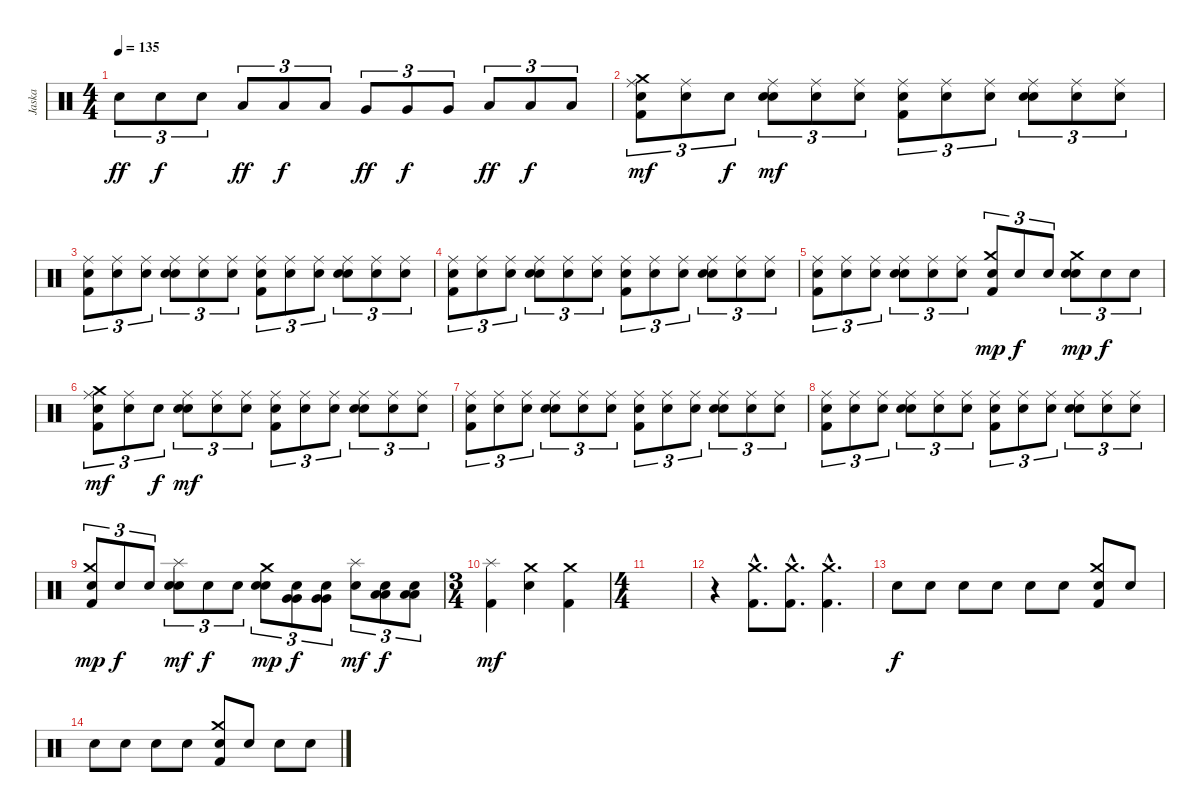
\track ("Jaska" "Jaska") {instrument percussion}
\staff {score}
\articulation defaults
\ts (4 4)
\tempo 135
\clef neutral
\ks c "Electric Snare (hit)".8{tu (3 2) dy ff} "Electric Snare (hit)".8{tu (3 2) dy f} "Electric Snare (hit)".8{tu (3 2)} "Low Tom (hit)".8{tu (3 2) dy ff} "Low Tom (hit)".8{tu (3 2) dy f} "Low Tom (hit)".8{tu (3 2)} "Very Low Tom (hit)".8{tu (3 2) dy ff} "Very Low Tom (hit)".8{tu (3 2) dy f} "Very Low Tom (hit)".8{tu (3 2)} "Low Floor Tom (hit)".8{tu (3 2) dy ff} "Low Floor Tom (hit)".8{tu (3 2) dy f} "Low Floor Tom (hit)".8{tu (3 2)}
|
("Snare (hit)"{x} "Crash medium (hit)" "Ride (middle)" "Kick (hit) 2").8{tu (3 2) dy mf} ("Snare (hit)"{x} "Ride (middle)").8{tu (3 2)} "Snare (hit)"{x}.8{tu (3 2) dy f} ("Snare (hit)"{x} "Ride (middle)" "Electric Snare (hit)").8{tu (3 2) dy mf} ("Snare (hit)"{x} "Ride (middle)").8{tu (3 2)} ("Snare (hit)"{x} "Ride (middle)").8{tu (3 2)} ("Snare (hit)"{x} "Ride (middle)" "Kick (hit) 2").8{tu (3 2)} ("Snare (hit)"{x} "Ride (middle)").8{tu (3 2)} ("Snare (hit)"{x} "Ride (middle)").8{tu (3 2)} ("Snare (hit)"{x} "Ride (middle)" "Electric Snare (hit)").8{tu (3 2)} ("Snare (hit)"{x} "Ride (middle)").8{tu (3 2)} ("Snare (hit)"{x} "Ride (middle)").8{tu (3 2)} |
("Snare (hit)"{x} "Ride (middle)" "Kick (hit) 2").8{tu (3 2)} ("Snare (hit)"{x} "Ride (middle)").8{tu (3 2)} ("Snare (hit)"{x} "Ride (middle)").8{tu (3 2)} ("Snare (hit)"{x} "Ride (middle)" "Electric Snare (hit)").8{tu (3 2)} ("Snare (hit)"{x} "Ride (middle)").8{tu (3 2)} ("Snare (hit)"{x} "Ride (middle)").8{tu (3 2)} ("Snare (hit)"{x} "Ride (middle)" "Kick (hit) 2").8{tu (3 2)} ("Snare (hit)"{x} "Ride (middle)").8{tu (3 2)} ("Snare (hit)"{x} "Ride (middle)").8{tu (3 2)} ("Snare (hit)"{x} "Ride (middle)" "Electric Snare (hit)").8{tu (3 2)} ("Snare (hit)"{x} "Ride (middle)").8{tu (3 2)} ("Snare (hit)"{x} "Ride (middle)").8{tu (3 2)} |
("Snare (hit)"{x} "Ride (middle)" "Kick (hit) 2").8{tu (3 2)} ("Snare (hit)"{x} "Ride (middle)").8{tu (3 2)} ("Snare (hit)"{x} "Ride (middle)").8{tu (3 2)} ("Snare (hit)"{x} "Ride (middle)" "Electric Snare (hit)").8{tu (3 2)} ("Snare (hit)"{x} "Ride (middle)").8{tu (3 2)} ("Snare (hit)"{x} "Ride (middle)").8{tu (3 2)} ("Snare (hit)"{x} "Ride (middle)" "Kick (hit) 2").8{tu (3 2)} ("Snare (hit)"{x} "Ride (middle)").8{tu (3 2)} ("Snare (hit)"{x} "Ride (middle)").8{tu (3 2)} ("Snare (hit)"{x} "Ride (middle)" "Electric Snare (hit)").8{tu (3 2)} ("Snare (hit)"{x} "Ride (middle)").8{tu (3 2)} ("Snare (hit)"{x} "Ride (middle)").8{tu (3 2)} |
("Snare (hit)"{x} "Ride (middle)" "Kick (hit) 2").8{tu (3 2)} ("Snare (hit)"{x} "Ride (middle)").8{tu (3 2)} ("Snare (hit)"{x} "Ride (middle)").8{tu (3 2)} ("Snare (hit)"{x} "Ride (middle)" "Electric Snare (hit)").8{tu (3 2)} ("Snare (hit)"{x} "Ride (middle)").8{tu (3 2)} ("Snare (hit)"{x} "Ride (middle)").8{tu (3 2)} ("Snare (hit)"{x} "Crash medium (hit)" "Kick (hit) 2").8{tu (3 2) dy mp} "Snare (hit)"{x}.8{tu (3 2) dy f} "Snare (hit)"{x}.8{tu (3 2)} ("Snare (hit)"{x} "Crash medium (hit)" "Electric Snare (hit)").8{tu (3 2) dy mp} "Snare (hit)"{x}.8{tu (3 2) dy f} "Snare (hit)"{x}.8{tu (3 2)} |
("Snare (hit)"{x} "Crash medium (hit)" "Ride (middle)" "Kick (hit) 2").8{tu (3 2) dy mf} ("Snare (hit)"{x} "Ride (middle)").8{tu (3 2)} "Snare (hit)"{x}.8{tu (3 2) dy f} ("Snare (hit)"{x} "Ride (middle)" "Electric Snare (hit)").8{tu (3 2) dy mf} ("Snare (hit)"{x} "Ride (middle)").8{tu (3 2)} ("Snare (hit)"{x} "Ride (middle)").8{tu (3 2)} ("Snare (hit)"{x} "Ride (middle)" "Kick (hit) 2").8{tu (3 2)} ("Snare (hit)"{x} "Ride (middle)").8{tu (3 2)} ("Snare (hit)"{x} "Ride (middle)").8{tu (3 2)} ("Snare (hit)"{x} "Ride (middle)" "Electric Snare (hit)").8{tu (3 2)} ("Snare (hit)"{x} "Ride (middle)").8{tu (3 2)} ("Snare (hit)"{x} "Ride (middle)").8{tu (3 2)} |
("Snare (hit)"{x} "Ride (middle)" "Kick (hit) 2").8{tu (3 2)} ("Snare (hit)"{x} "Ride (middle)").8{tu (3 2)} ("Snare (hit)"{x} "Ride (middle)").8{tu (3 2)} ("Snare (hit)"{x} "Ride (middle)" "Electric Snare (hit)").8{tu (3 2)} ("Snare (hit)"{x} "Ride (middle)").8{tu (3 2)} ("Snare (hit)"{x} "Ride (middle)").8{tu (3 2)} ("Snare (hit)"{x} "Ride (middle)" "Kick (hit) 2").8{tu (3 2)} ("Snare (hit)"{x} "Ride (middle)").8{tu (3 2)} ("Snare (hit)"{x} "Ride (middle)").8{tu (3 2)} ("Snare (hit)"{x} "Ride (middle)" "Electric Snare (hit)").8{tu (3 2)} ("Snare (hit)"{x} "Ride (middle)").8{tu (3 2)} ("Snare (hit)"{x} "Ride (middle)").8{tu (3 2)} |
("Snare (hit)"{x} "Ride (middle)" "Kick (hit) 2").8{tu (3 2)} ("Snare (hit)"{x} "Ride (middle)").8{tu (3 2)} ("Snare (hit)"{x} "Ride (middle)").8{tu (3 2)} ("Snare (hit)"{x} "Ride (middle)" "Electric Snare (hit)").8{tu (3 2)} ("Snare (hit)"{x} "Ride (middle)").8{tu (3 2)} ("Snare (hit)"{x} "Ride (middle)").8{tu (3 2)} ("Snare (hit)"{x} "Ride (middle)" "Kick (hit) 2").8{tu (3 2)} ("Snare (hit)"{x} "Ride (middle)").8{tu (3 2)} ("Snare (hit)"{x} "Ride (middle)").8{tu (3 2)} ("Snare (hit)"{x} "Ride (middle)" "Electric Snare (hit)").8{tu (3 2)} ("Snare (hit)"{x} "Ride (middle)").8{tu (3 2)} ("Snare (hit)"{x} "Ride (middle)").8{tu (3 2)} |
("Snare (hit)"{x} "Crash medium (hit)" "Kick (hit) 2").8{tu (3 2) dy mp} "Snare (hit)"{x}.8{tu (3 2) dy f} "Snare (hit)"{x}.8{tu (3 2)} ("Snare (hit)"{x} "Splash (hit)" "Electric Snare (hit)").8{tu (3 2) dy mf} "Snare (hit)"{x}.8{tu (3 2) dy f} "Snare (hit)"{x}.8{tu (3 2)} ("Snare (hit)"{x} "Crash medium (hit)" "Electric Snare (hit)").8{tu (3 2) dy mp} ("Snare (hit)"{x} "Very Low Tom (hit)" "Very Low Tom (hit)").8{tu (3 2) dy f} ("Snare (hit)"{x} "Very Low Tom (hit)" "Very Low Tom (hit)").8{tu (3 2)} ("Snare (hit)"{x} "Splash (hit)").8{tu (3 2) dy mf} ("Snare (hit)"{x} "Low Floor Tom (hit)" "Low Floor Tom (hit)").8{tu (3 2) dy f} ("Snare (hit)"{x} "Low Floor Tom (hit)" "Low Floor Tom (hit)").8{tu (3 2)} |
\ts (3 4)
("Splash (hit)" "Kick (hit) 2").4{dy mf} ("Crash medium (hit)" "Electric Snare (hit)").4 ("Crash medium (hit)" "Kick (hit) 2").4 |
\ts (4 4)
|
r.4 ("Crash medium (hit)"{hac} "Kick (hit) 2"{hac}).8{d} ("Crash medium (hit)"{hac} "Kick (hit) 2"{hac}).8{d} ("Crash medium (hit)"{hac} "Kick (hit) 2"{hac}).4{d} |
"Snare (hit)"{x}.8{dy f} "Snare (hit)"{x}.8 "Snare (hit)"{x}.8 "Snare (hit)"{x}.8 "Snare (hit)"{x}.8 "Snare (hit)"{x}.8 ("Snare (hit)"{x} "Crash medium (hit)" "Kick (hit) 2").8 "Snare (hit)"{x}.8 |
"Snare (hit)"{x}.8 "Snare (hit)"{x}.8 "Snare (hit)"{x}.8 "Snare (hit)"{x}.8 ("Snare (hit)"{x} "Crash medium (hit)" "Kick (hit) 2").8 "Snare (hit)"{x}.8 "Snare (hit)"{x}.8 "Snare (hit)"{x}.8
